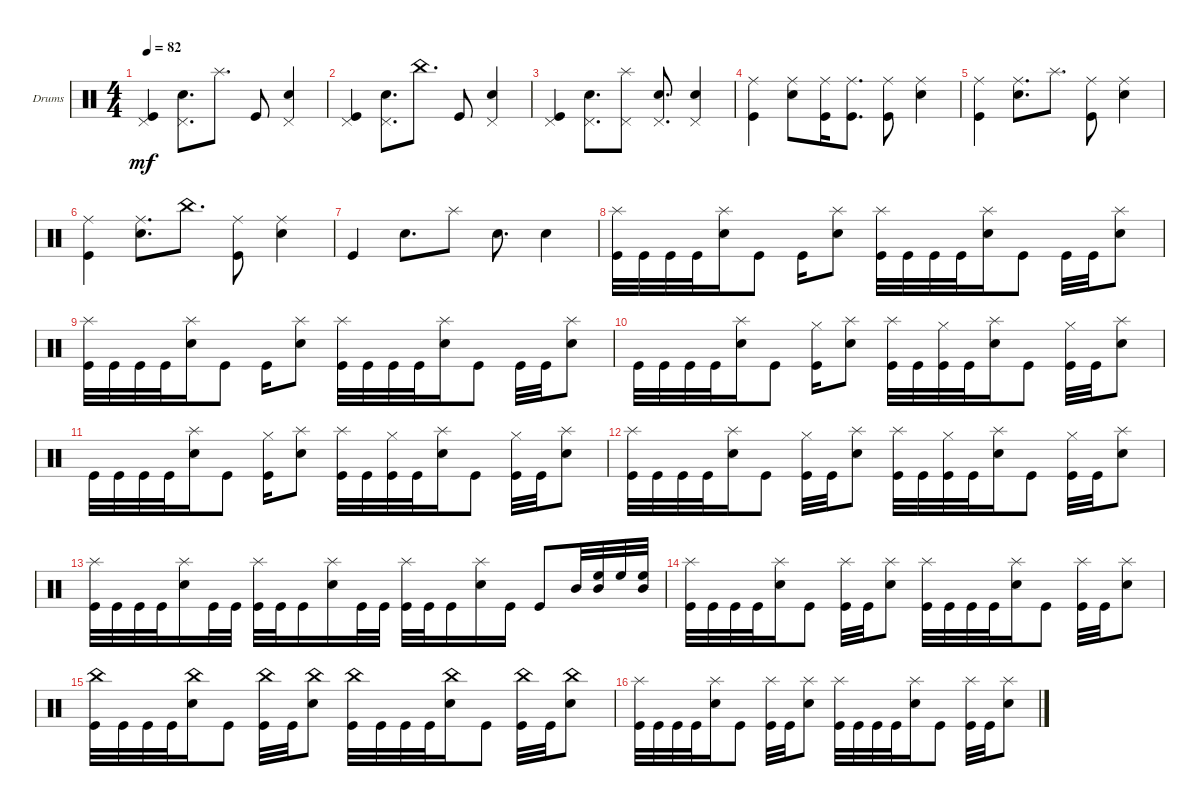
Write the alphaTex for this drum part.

\bracketExtendMode groupsimilarinstruments
\firstSystemTrackNameOrientation horizontal
\otherSystemsTrackNameOrientation horizontal
\track ("Drumkit" "Drums") {multiBarRest instrument percussion}
\staff {score}
\articulation defaults
\ts (4 4)
\tempo 82
\clef neutral
\ks c
("Kick (hit)" "Pedal Hi-Hat (hit)").4{dy mf} ("Snare (hit) 2" "Pedal Hi-Hat (hit)").8{d} "Splash (hit)".8{d} "Kick (hit)".8 ("Snare (hit) 2" "Pedal Hi-Hat (hit)").4 |
("Kick (hit)" "Pedal Hi-Hat (hit)").4 ("Snare (hit) 2" "Pedal Hi-Hat (hit)").8{d} "China (hit)".8{d} "Kick (hit)".8 ("Snare (hit) 2" "Pedal Hi-Hat (hit)").4 |
("Kick (hit)" "Pedal Hi-Hat (hit)").4 ("Snare (hit) 2" "Pedal Hi-Hat (hit)").8{d} ("Splash (hit)" "Pedal Hi-Hat (hit)").8 ("Snare (hit) 2" "Pedal Hi-Hat (hit)").8{d} ("Snare (hit) 2" "Pedal Hi-Hat (hit)").4 |
("Kick (hit)" "Ride (middle)").4 ("Snare (hit) 2" "Ride (middle)").8 ("Kick (hit)" "Ride (middle)").16 ("Kick (hit)" "Ride (middle)").8{d} ("Kick (hit)" "Ride (middle)").8 ("Snare (hit) 2" "Ride (middle)").4 |
("Kick (hit)" "Ride (middle)").4 ("Snare (hit) 2" "Ride (middle)").8{d} "Splash (hit)".8{d} ("Kick (hit)" "Ride (middle)").8 ("Snare (hit) 2" "Ride (middle)").4 |
("Kick (hit)" "Ride (middle)").4 ("Snare (hit) 2" "Ride (middle)").8{d} "China (hit)".8{d} ("Kick (hit)" "Ride (middle)").8 ("Snare (hit) 2" "Ride (middle)").4 |
"Kick (hit)".4 "Snare (hit) 2".8{d} "Splash (hit)".8 "Snare (hit) 2".8{d} "Snare (hit) 2".4 |
("Kick (hit)" "Splash (hit)").32 "Kick (hit)".32 "Kick (hit)".32 "Kick (hit)".32 ("Snare (hit) 2" "Splash (hit)").16 "Kick (hit)".8 "Kick (hit)".16 ("Snare (hit) 2" "Splash (hit)").8 ("Kick (hit)" "Splash (hit)").32 "Kick (hit)".32 "Kick (hit)".32 "Kick (hit)".32 ("Snare (hit) 2" "Splash (hit)").16 "Kick (hit)".8 "Kick (hit)".32 "Kick (hit)".32 ("Snare (hit) 2" "Splash (hit)").8 |
("Kick (hit)" "Splash (hit)").32 "Kick (hit)".32 "Kick (hit)".32 "Kick (hit)".32 ("Snare (hit) 2" "Splash (hit)").16 "Kick (hit)".8 "Kick (hit)".16 ("Snare (hit) 2" "Splash (hit)").8 ("Kick (hit)" "Splash (hit)").32 "Kick (hit)".32 "Kick (hit)".32 "Kick (hit)".32 ("Snare (hit) 2" "Splash (hit)").16 "Kick (hit)".8 "Kick (hit)".32 "Kick (hit)".32 ("Snare (hit) 2" "Splash (hit)").8 |
"Kick (hit)".32 "Kick (hit)".32 "Kick (hit)".32 "Kick (hit)".32 ("Snare (hit) 2" "Splash (hit)").16 "Kick (hit)".8 ("Kick (hit)" "Hi-Hat (closed)").16 ("Snare (hit) 2" "Splash (hit)").8 ("Kick (hit)" "Splash (hit)").32 "Kick (hit)".32 ("Kick (hit)" "Hi-Hat (closed)").32 "Kick (hit)".32 ("Snare (hit) 2" "Splash (hit)").16 "Kick (hit)".8 ("Kick (hit)" "Hi-Hat (closed)").32 "Kick (hit)".32 ("Snare (hit) 2" "Splash (hit)").8 |
"Kick (hit)".32 "Kick (hit)".32 "Kick (hit)".32 "Kick (hit)".32 ("Snare (hit) 2" "Splash (hit)").16 "Kick (hit)".8 ("Kick (hit)" "Hi-Hat (closed)").16 ("Snare (hit) 2" "Splash (hit)").8 ("Kick (hit)" "Splash (hit)").32 "Kick (hit)".32 ("Kick (hit)" "Hi-Hat (closed)").32 "Kick (hit)".32 ("Snare (hit) 2" "Splash (hit)").16 "Kick (hit)".8 ("Kick (hit)" "Hi-Hat (closed)").32 "Kick (hit)".32 ("Snare (hit) 2" "Splash (hit)").8 |
("Kick (hit)" "Splash (hit)").32 "Kick (hit)".32 "Kick (hit)".32 "Kick (hit)".32 ("Snare (hit) 2" "Splash (hit)").16 "Kick (hit)".8 ("Kick (hit)" "Hi-Hat (closed)").32 "Kick (hit)".32 ("Snare (hit) 2" "Splash (hit)").8 ("Kick (hit)" "Splash (hit)").32 "Kick (hit)".32 ("Kick (hit)" "Hi-Hat (closed)").32 "Kick (hit)".32 ("Snare (hit) 2" "Splash (hit)").16 "Kick (hit)".8 ("Kick (hit)" "Hi-Hat (closed)").32 "Kick (hit)".32 ("Snare (hit) 2" "Splash (hit)").8 |
("Kick (hit)" "Splash (hit)").32 "Kick (hit)".32 "Kick (hit)".32 "Kick (hit)".32 ("Snare (hit) 2" "Splash (hit)").16 "Kick (hit)".32 "Kick (hit)".32 ("Kick (hit)" "Splash (hit)").32 "Kick (hit)".32 "Kick (hit)".16 ("Snare (hit) 2" "Splash (hit)").16 "Kick (hit)".32 "Kick (hit)".32 ("Kick (hit)" "Splash (hit)").32 "Kick (hit)".32 "Kick (hit)".16 ("Snare (hit) 2" "Splash (hit)").16 "Kick (hit)".16 "Kick (hit)".8 "Mid Tom (hit)".32 ("Mid Tom (hit)" "High Floor Tom (hit)").32 "High Floor Tom (hit)".32 ("Mid Tom (hit)" "High Floor Tom (hit)").32 |
("Kick (hit)" "Splash (hit)").32 "Kick (hit)".32 "Kick (hit)".32 "Kick (hit)".32 ("Snare (hit) 2" "Splash (hit)").16 "Kick (hit)".8 ("Kick (hit)" "Splash (hit)").32 "Kick (hit)".32 ("Snare (hit) 2" "Splash (hit)").8 ("Kick (hit)" "Splash (hit)").32 "Kick (hit)".32 "Kick (hit)".32 "Kick (hit)".32 ("Snare (hit) 2" "Splash (hit)").16 "Kick (hit)".8 ("Kick (hit)" "Splash (hit)").32 "Kick (hit)".32 ("Snare (hit) 2" "Splash (hit)").8 |
("Kick (hit)" "China (hit)").32 "Kick (hit)".32 "Kick (hit)".32 "Kick (hit)".32 ("Snare (hit) 2" "China (hit)").16 "Kick (hit)".8 ("Kick (hit)" "China (hit)").32 "Kick (hit)".32 ("Snare (hit) 2" "China (hit)").8 ("Kick (hit)" "China (hit)").32 "Kick (hit)".32 "Kick (hit)".32 "Kick (hit)".32 ("Snare (hit) 2" "China (hit)").16 "Kick (hit)".8 ("Kick (hit)" "China (hit)").32 "Kick (hit)".32 ("Snare (hit) 2" "China (hit)").8 |
("Kick (hit)" "Splash (hit)").32 "Kick (hit)".32 "Kick (hit)".32 "Kick (hit)".32 ("Snare (hit) 2" "Splash (hit)").16 "Kick (hit)".8 ("Kick (hit)" "Splash (hit)").32 "Kick (hit)".32 ("Snare (hit) 2" "Splash (hit)").8 ("Kick (hit)" "Splash (hit)").32 "Kick (hit)".32 "Kick (hit)".32 "Kick (hit)".32 ("Snare (hit) 2" "Splash (hit)").16 "Kick (hit)".8 ("Kick (hit)" "Splash (hit)").32 "Kick (hit)".32 ("Snare (hit) 2" "Splash (hit)").8
